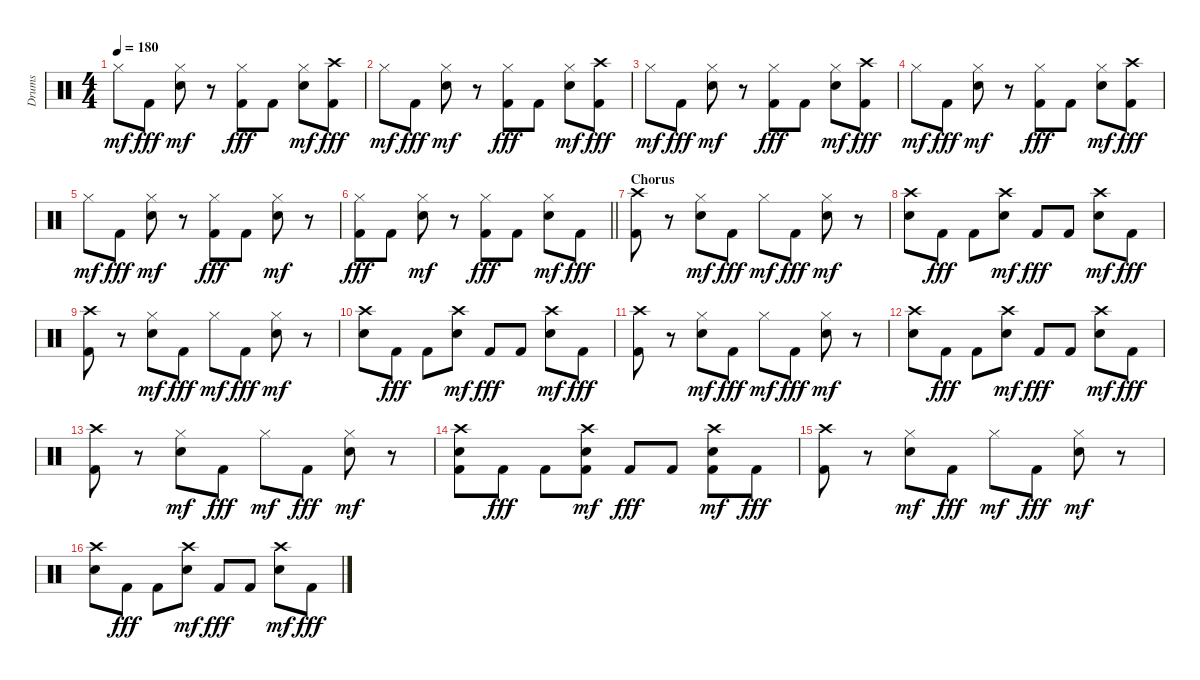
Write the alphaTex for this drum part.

\track ("Drums" "Drums") {instrument percussion}
\staff {score}
\articulation defaults
\ts (4 4)
\tempo 180
\clef neutral
\ks c "Hi-Hat (closed)".8{dy mf} "Kick (hit) 2".8{dy fff}
("Hi-Hat (closed)" "Electric Snare (hit)").8{dy mf} r.8 ("Hi-Hat (closed)" "Kick (hit) 2").8{dy fff} "Kick (hit) 2".8 ("Hi-Hat (closed)" "Electric Snare (hit)").8{dy mf} ("Crash high (hit)" "Kick (hit) 2").8{dy fff} |
"Hi-Hat (closed)".8{dy mf} "Kick (hit) 2".8{dy fff} ("Hi-Hat (closed)" "Electric Snare (hit)").8{dy mf} r.8 ("Hi-Hat (closed)" "Kick (hit) 2").8{dy fff} "Kick (hit) 2".8 ("Hi-Hat (closed)" "Electric Snare (hit)").8{dy mf} ("Crash high (hit)" "Kick (hit) 2").8{dy fff} |
"Hi-Hat (closed)".8{dy mf} "Kick (hit) 2".8{dy fff} ("Hi-Hat (closed)" "Electric Snare (hit)").8{dy mf} r.8 ("Hi-Hat (closed)" "Kick (hit) 2").8{dy fff} "Kick (hit) 2".8 ("Hi-Hat (closed)" "Electric Snare (hit)").8{dy mf} ("Crash high (hit)" "Kick (hit) 2").8{dy fff} |
"Hi-Hat (closed)".8{dy mf} "Kick (hit) 2".8{dy fff} ("Hi-Hat (closed)" "Electric Snare (hit)").8{dy mf} r.8 ("Hi-Hat (closed)" "Kick (hit) 2").8{dy fff} "Kick (hit) 2".8 ("Hi-Hat (closed)" "Electric Snare (hit)").8{dy mf} ("Crash high (hit)" "Kick (hit) 2").8{dy fff} |
"Hi-Hat (closed)".8{dy mf} "Kick (hit) 2".8{dy fff} ("Hi-Hat (closed)" "Electric Snare (hit)").8{dy mf} r.8 ("Hi-Hat (closed)" "Kick (hit) 2").8{dy fff} "Kick (hit) 2".8 ("Hi-Hat (closed)" "Electric Snare (hit)").8{dy mf} r.8 |
\barLineRight lightlight
("Hi-Hat (closed)" "Kick (hit) 2").8{dy fff} "Kick (hit) 2".8 ("Hi-Hat (closed)" "Electric Snare (hit)").8{dy mf} r.8 ("Hi-Hat (closed)" "Kick (hit) 2").8{dy fff} "Kick (hit) 2".8 ("Hi-Hat (closed)" "Electric Snare (hit)").8{dy mf} "Kick (hit) 2".8{dy fff} |
\section ("" "Chorus")
("Crash high (hit)" "Kick (hit) 2").8 r.8 ("Hi-Hat (closed)" "Electric Snare (hit)").8{dy mf} "Kick (hit) 2".8{dy fff} "Hi-Hat (closed)".8{dy mf} "Kick (hit) 2".8{dy fff} ("Hi-Hat (closed)" "Electric Snare (hit)").8{dy mf} r.8 |
("Crash high (hit)" "Electric Snare (hit)").8 "Kick (hit) 2".8{dy fff} "Kick (hit) 2".8 ("Crash high (hit)" "Electric Snare (hit)").8{dy mf} "Kick (hit) 2".8{dy fff} "Kick (hit) 2".8 ("Crash high (hit)" "Electric Snare (hit)").8{dy mf} "Kick (hit) 2".8{dy fff} |
("Crash high (hit)" "Kick (hit) 2").8 r.8 ("Hi-Hat (closed)" "Electric Snare (hit)").8{dy mf} "Kick (hit) 2".8{dy fff} "Hi-Hat (closed)".8{dy mf} "Kick (hit) 2".8{dy fff} ("Hi-Hat (closed)" "Electric Snare (hit)").8{dy mf} r.8 |
("Crash high (hit)" "Electric Snare (hit)").8 "Kick (hit) 2".8{dy fff} "Kick (hit) 2".8 ("Crash high (hit)" "Electric Snare (hit)").8{dy mf} "Kick (hit) 2".8{dy fff} "Kick (hit) 2".8 ("Crash high (hit)" "Electric Snare (hit)").8{dy mf} "Kick (hit) 2".8{dy fff} |
("Crash high (hit)" "Kick (hit) 2").8 r.8 ("Hi-Hat (closed)" "Electric Snare (hit)").8{dy mf} "Kick (hit) 2".8{dy fff} "Hi-Hat (closed)".8{dy mf} "Kick (hit) 2".8{dy fff} ("Hi-Hat (closed)" "Electric Snare (hit)").8{dy mf} r.8 |
("Crash high (hit)" "Electric Snare (hit)").8 "Kick (hit) 2".8{dy fff} "Kick (hit) 2".8 ("Crash high (hit)" "Electric Snare (hit)").8{dy mf} "Kick (hit) 2".8{dy fff} "Kick (hit) 2".8 ("Crash high (hit)" "Electric Snare (hit)").8{dy mf} "Kick (hit) 2".8{dy fff} |
("Crash high (hit)" "Kick (hit) 2").8 r.8 ("Hi-Hat (closed)" "Electric Snare (hit)").8{dy mf} "Kick (hit) 2".8{dy fff} "Hi-Hat (closed)".8{dy mf} "Kick (hit) 2".8{dy fff} ("Hi-Hat (closed)" "Electric Snare (hit)").8{dy mf} r.8 |
("Kick (hit) 2" "Electric Snare (hit)" "Crash high (hit)").8 "Kick (hit) 2".8{dy fff} "Kick (hit) 2".8 ("Kick (hit) 2" "Electric Snare (hit)" "Crash high (hit)").8{dy mf} "Kick (hit) 2".8{dy fff} "Kick (hit) 2".8 ("Kick (hit) 2" "Electric Snare (hit)" "Crash high (hit)").8{dy mf} "Kick (hit) 2".8{dy fff} |
("Crash high (hit)" "Kick (hit) 2").8 r.8 ("Hi-Hat (closed)" "Electric Snare (hit)").8{dy mf} "Kick (hit) 2".8{dy fff} "Hi-Hat (closed)".8{dy mf} "Kick (hit) 2".8{dy fff} ("Hi-Hat (closed)" "Electric Snare (hit)").8{dy mf} r.8 |
("Crash high (hit)" "Electric Snare (hit)").8 "Kick (hit) 2".8{dy fff} "Kick (hit) 2".8 ("Crash high (hit)" "Electric Snare (hit)").8{dy mf} "Kick (hit) 2".8{dy fff} "Kick (hit) 2".8 ("Crash high (hit)" "Electric Snare (hit)").8{dy mf} "Kick (hit) 2".8{dy fff}
